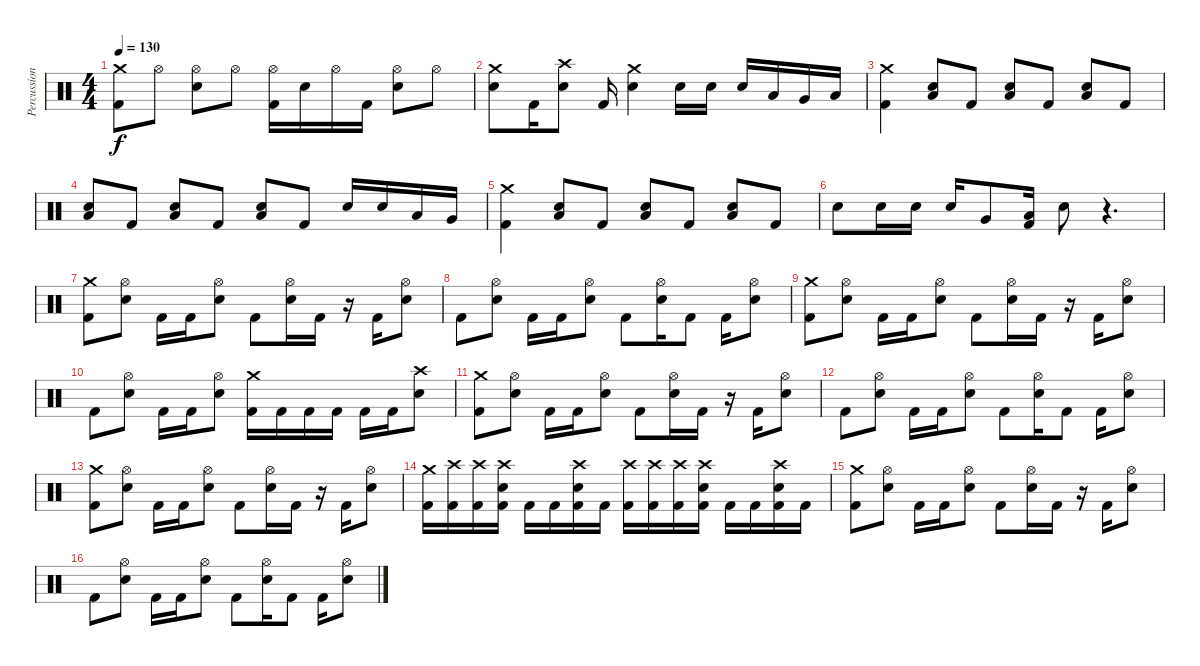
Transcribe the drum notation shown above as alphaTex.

\track ("Percussion" "Percussion") {instrument percussion}
\staff {score}
\articulation defaults
\ts (4 4)
\tempo 130
\clef neutral
\ks c
("Crash medium (hit)" "Kick (hit) 2").8{dy f} "Hi-Hat (open)".8 ("Hi-Hat (open)" "Electric Snare (hit)").8 "Hi-Hat (open)".8 ("Hi-Hat (open)" "Kick (hit) 2").16 "Electric Snare (hit)".16 "Hi-Hat (open)".16 "Kick (hit) 2".16 ("Hi-Hat (open)" "Electric Snare (hit)").8 "Hi-Hat (open)".8 |
("Crash medium (hit)" "Electric Snare (hit)").8 "Kick (hit) 2".16 ("Crash high (hit)" "Electric Snare (hit)").8 "Kick (hit) 2".16 ("Crash medium (hit)" "Electric Snare (hit)").4 "Electric Snare (hit)".16 "Electric Snare (hit)".16 "Electric Snare (hit)".16 "Low Tom (hit)".16 "Very Low Tom (hit)".16 "Low Floor Tom (hit)".16 |
("Crash medium (hit)" "Kick (hit) 2").4 ("Low Floor Tom (hit)" "Electric Snare (hit)").8 "Kick (hit) 2".8 ("Low Floor Tom (hit)" "Electric Snare (hit)").8 "Kick (hit) 2".8 ("Low Floor Tom (hit)" "Electric Snare (hit)").8 "Kick (hit) 2".8 |
("Low Floor Tom (hit)" "Electric Snare (hit)").8 "Kick (hit) 2".8 ("Low Floor Tom (hit)" "Electric Snare (hit)").8 "Kick (hit) 2".8 ("Low Floor Tom (hit)" "Electric Snare (hit)").8 "Kick (hit) 2".8 "Electric Snare (hit)".16 "Electric Snare (hit)".16 "Low Tom (hit)".16 "Very Low Tom (hit)".16 |
("Crash medium (hit)" "Kick (hit) 2").4 ("Low Floor Tom (hit)" "Electric Snare (hit)").8 "Kick (hit) 2".8 ("Low Floor Tom (hit)" "Electric Snare (hit)").8 "Kick (hit) 2".8 ("Low Floor Tom (hit)" "Electric Snare (hit)").8 "Kick (hit) 2".8 |
"Electric Snare (hit)".8 "Electric Snare (hit)".16 "Electric Snare (hit)".16 "Electric Snare (hit)".16 "Very Low Tom (hit)".8 ("Low Floor Tom (hit)" "Kick (hit) 2").16 "Electric Snare (hit)".8 r.4{d} |
("Crash medium (hit)" "Kick (hit) 2").8 ("Hi-Hat (open)" "Electric Snare (hit)").8 "Kick (hit) 2".16 "Kick (hit) 2".16 ("Hi-Hat (open)" "Electric Snare (hit)").8 "Kick (hit) 2".8 ("Hi-Hat (open)" "Electric Snare (hit)").16 "Kick (hit) 2".16 r.16 "Kick (hit) 2".16 ("Hi-Hat (open)" "Electric Snare (hit)").8 |
"Kick (hit) 2".8 ("Hi-Hat (open)" "Electric Snare (hit)").8 "Kick (hit) 2".16 "Kick (hit) 2".16 ("Hi-Hat (open)" "Electric Snare (hit)").8 "Kick (hit) 2".8 ("Hi-Hat (open)" "Electric Snare (hit)").16 "Kick (hit) 2".8 "Kick (hit) 2".16 ("Hi-Hat (open)" "Electric Snare (hit)").8 |
("Crash medium (hit)" "Kick (hit) 2").8 ("Hi-Hat (open)" "Electric Snare (hit)").8 "Kick (hit) 2".16 "Kick (hit) 2".16 ("Hi-Hat (open)" "Electric Snare (hit)").8 "Kick (hit) 2".8 ("Hi-Hat (open)" "Electric Snare (hit)").16 "Kick (hit) 2".16 r.16 "Kick (hit) 2".16 ("Hi-Hat (open)" "Electric Snare (hit)").8 |
"Kick (hit) 2".8 ("Hi-Hat (open)" "Electric Snare (hit)").8 "Kick (hit) 2".16 "Kick (hit) 2".16 ("Hi-Hat (open)" "Electric Snare (hit)").8 ("Crash medium (hit)" "Kick (hit) 2").16 "Kick (hit) 2".16 "Kick (hit) 2".16 "Kick (hit) 2".16 "Kick (hit) 2".16 "Kick (hit) 2".16 ("Crash high (hit)" "Electric Snare (hit)").8 |
("Crash medium (hit)" "Kick (hit) 2").8 ("Hi-Hat (open)" "Electric Snare (hit)").8 "Kick (hit) 2".16 "Kick (hit) 2".16 ("Hi-Hat (open)" "Electric Snare (hit)").8 "Kick (hit) 2".8 ("Hi-Hat (open)" "Electric Snare (hit)").16 "Kick (hit) 2".16 r.16 "Kick (hit) 2".16 ("Hi-Hat (open)" "Electric Snare (hit)").8 |
"Kick (hit) 2".8 ("Hi-Hat (open)" "Electric Snare (hit)").8 "Kick (hit) 2".16 "Kick (hit) 2".16 ("Hi-Hat (open)" "Electric Snare (hit)").8 "Kick (hit) 2".8 ("Hi-Hat (open)" "Electric Snare (hit)").16 "Kick (hit) 2".8 "Kick (hit) 2".16 ("Hi-Hat (open)" "Electric Snare (hit)").8 |
("Crash medium (hit)" "Kick (hit) 2").8 ("Hi-Hat (open)" "Electric Snare (hit)").8 "Kick (hit) 2".16 "Kick (hit) 2".16 ("Hi-Hat (open)" "Electric Snare (hit)").8 "Kick (hit) 2".8 ("Hi-Hat (open)" "Electric Snare (hit)").16 "Kick (hit) 2".16 r.16 "Kick (hit) 2".16 ("Hi-Hat (open)" "Electric Snare (hit)").8 |
("Crash medium (hit)" "Kick (hit) 2").16 ("Crash high (hit)" "Kick (hit) 2").16 ("Crash high (hit)" "Kick (hit) 2").16 ("Crash high (hit)" "Electric Snare (hit)" "Kick (hit) 2").16 "Kick (hit) 2".16 "Kick (hit) 2".16 ("Crash high (hit)" "Electric Snare (hit)" "Kick (hit) 2").16 "Kick (hit) 2".16 ("Crash high (hit)" "Kick (hit) 2").16 ("Crash high (hit)" "Kick (hit) 2").16 ("Crash high (hit)" "Kick (hit) 2").16 ("Crash high (hit)" "Electric Snare (hit)" "Kick (hit) 2").16 "Kick (hit) 2".16 "Kick (hit) 2".16 ("Crash high (hit)" "Electric Snare (hit)" "Kick (hit) 2").16 "Kick (hit) 2".16 |
("Crash medium (hit)" "Kick (hit) 2").8 ("Hi-Hat (open)" "Electric Snare (hit)").8 "Kick (hit) 2".16 "Kick (hit) 2".16 ("Hi-Hat (open)" "Electric Snare (hit)").8 "Kick (hit) 2".8 ("Hi-Hat (open)" "Electric Snare (hit)").16 "Kick (hit) 2".16 r.16 "Kick (hit) 2".16 ("Hi-Hat (open)" "Electric Snare (hit)").8 |
"Kick (hit) 2".8 ("Hi-Hat (open)" "Electric Snare (hit)").8 "Kick (hit) 2".16 "Kick (hit) 2".16 ("Hi-Hat (open)" "Electric Snare (hit)").8 "Kick (hit) 2".8 ("Hi-Hat (open)" "Electric Snare (hit)").16 "Kick (hit) 2".8 "Kick (hit) 2".16 ("Hi-Hat (open)" "Electric Snare (hit)").8
